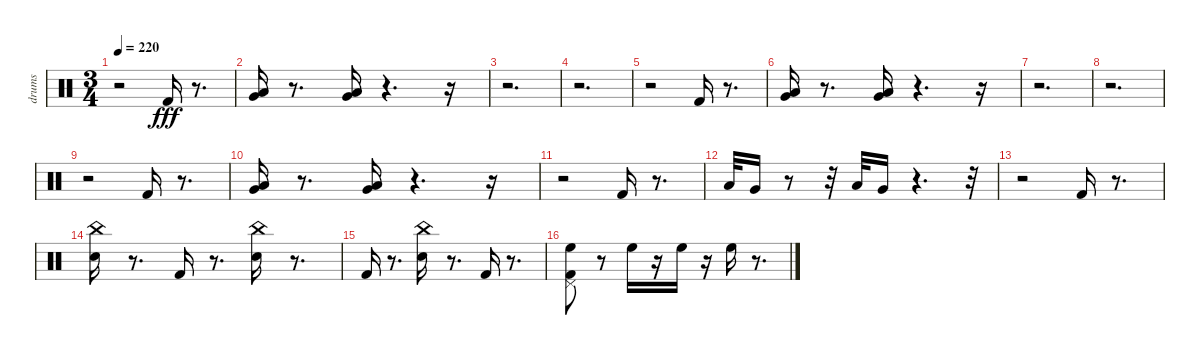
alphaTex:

\track ("drums" "drums") {instrument percussion}
\staff {score}
\articulation defaults
\ts (3 4)
\tempo 220
\clef neutral
\ks c
r.2{dy fff} "Kick (hit) 2".16 r.8{d} |
("Low Floor Tom (hit)" "Very Low Tom (hit)").16 r.8{d} ("Low Floor Tom (hit)" "Very Low Tom (hit)").16 r.4{d} r.16 |
r.2{d} |
r.2{d} |
r.2 "Kick (hit) 2".16 r.8{d} |
("Low Floor Tom (hit)" "Very Low Tom (hit)").16 r.8{d} ("Low Floor Tom (hit)" "Very Low Tom (hit)").16 r.4{d} r.16 |
r.2{d} |
r.2{d} |
r.2 "Kick (hit) 2".16 r.8{d} |
("Low Floor Tom (hit)" "Very Low Tom (hit)").16 r.8{d} ("Low Floor Tom (hit)" "Very Low Tom (hit)").16 r.4{d} r.16 |
r.2 "Kick (hit) 2".16 r.8{d} |
"Low Floor Tom (hit)".32 "Very Low Tom (hit)".16 r.8 r.32 "Low Floor Tom (hit)".32 "Very Low Tom (hit)".16 r.4{d} r.32 |
r.2 "Kick (hit) 2".16 r.8{d} |
("China (hit)" "Snare (hit) 2").16 r.8{d} "Kick (hit) 2".16 r.8{d} ("China (hit)" "Snare (hit) 2").16 r.8{d} |
"Kick (hit) 2".16 r.8{d} ("China (hit)" "Snare (hit) 2").16 r.8{d} "Kick (hit) 2".16 r.8{d} |
("Pedal Hi-Hat (hit)" "Kick (hit) 2" "High Floor Tom (hit)").8 r.8 "High Floor Tom (hit)".16 r.16 "High Floor Tom (hit)".16 r.16 "High Floor Tom (hit)".16 r.8{d}
